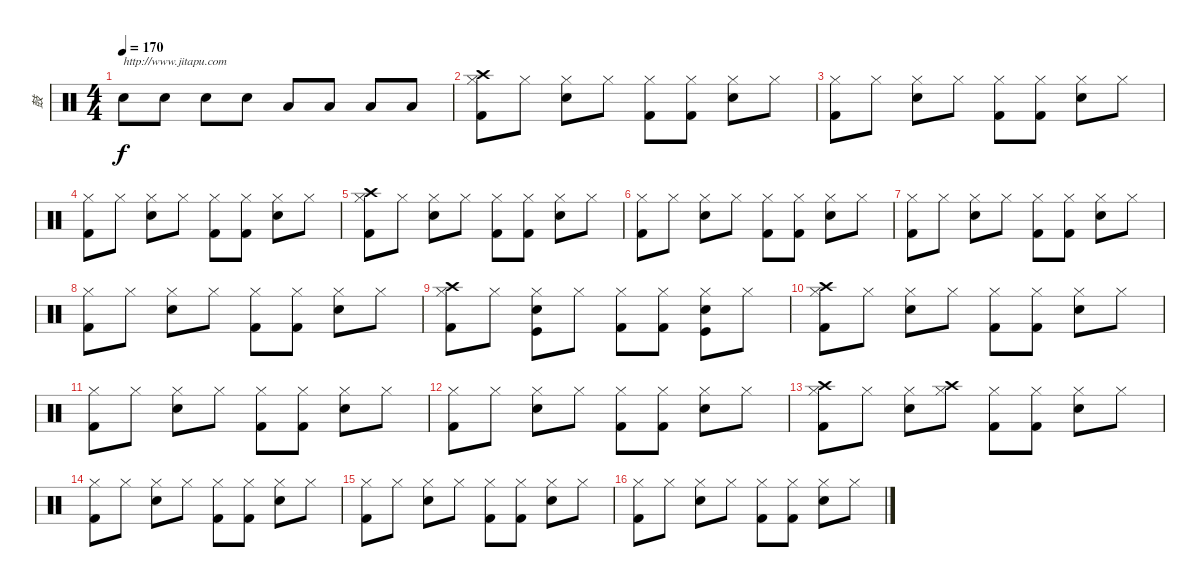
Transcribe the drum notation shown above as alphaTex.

\track ("鼓" "鼓") {instrument percussion}
\staff {score}
\articulation defaults
\ts (4 4)
\tempo 170
\clef neutral
\ks c "Snare (hit) 2".8{txt "http://www.jitapu.com" dy f} "Snare (hit) 2".8 "Snare (hit) 2".8 "Snare (hit) 2".8 "Low Tom (hit)".8 "Low Tom (hit)".8 "Low Floor Tom (hit)".8 "Low Floor Tom (hit)".8
|
("Crash high (hit)" "Hi-Hat (closed)" "Kick (hit) 2").8 "Hi-Hat (closed)".8 ("Hi-Hat (closed)" "Electric Snare (hit)").8 "Hi-Hat (closed)".8 ("Hi-Hat (closed)" "Kick (hit) 2").8 ("Hi-Hat (closed)" "Kick (hit) 2").8 ("Hi-Hat (closed)" "Electric Snare (hit)").8 "Hi-Hat (closed)".8 |
("Hi-Hat (closed)" "Kick (hit) 2").8 "Hi-Hat (closed)".8 ("Hi-Hat (closed)" "Electric Snare (hit)").8 "Hi-Hat (closed)".8 ("Hi-Hat (closed)" "Kick (hit) 2").8 ("Hi-Hat (closed)" "Kick (hit) 2").8 ("Hi-Hat (closed)" "Electric Snare (hit)").8 "Hi-Hat (closed)".8 |
("Hi-Hat (closed)" "Kick (hit) 2").8 "Hi-Hat (closed)".8 ("Hi-Hat (closed)" "Electric Snare (hit)").8 "Hi-Hat (closed)".8 ("Hi-Hat (closed)" "Kick (hit) 2").8 ("Hi-Hat (closed)" "Kick (hit) 2").8 ("Hi-Hat (closed)" "Electric Snare (hit)").8 "Hi-Hat (closed)".8 |
("Crash high (hit)" "Hi-Hat (closed)" "Kick (hit) 2").8 "Hi-Hat (closed)".8 ("Hi-Hat (closed)" "Electric Snare (hit)").8 "Hi-Hat (closed)".8 ("Hi-Hat (closed)" "Kick (hit) 2").8 ("Hi-Hat (closed)" "Kick (hit) 2").8 ("Hi-Hat (closed)" "Electric Snare (hit)").8 "Hi-Hat (closed)".8 |
("Hi-Hat (closed)" "Kick (hit) 2").8 "Hi-Hat (closed)".8 ("Hi-Hat (closed)" "Electric Snare (hit)").8 "Hi-Hat (closed)".8 ("Hi-Hat (closed)" "Kick (hit) 2").8 ("Hi-Hat (closed)" "Kick (hit) 2").8 ("Hi-Hat (closed)" "Electric Snare (hit)").8 "Hi-Hat (closed)".8 |
("Hi-Hat (closed)" "Kick (hit) 2").8 "Hi-Hat (closed)".8 ("Hi-Hat (closed)" "Electric Snare (hit)").8 "Hi-Hat (closed)".8 ("Hi-Hat (closed)" "Kick (hit) 2").8 ("Hi-Hat (closed)" "Kick (hit) 2").8 ("Hi-Hat (closed)" "Electric Snare (hit)").8 "Hi-Hat (closed)".8 |
("Hi-Hat (closed)" "Kick (hit) 2").8 "Hi-Hat (closed)".8 ("Hi-Hat (closed)" "Electric Snare (hit)").8 "Hi-Hat (closed)".8 ("Hi-Hat (closed)" "Kick (hit) 2").8 ("Hi-Hat (closed)" "Kick (hit) 2").8 ("Hi-Hat (closed)" "Electric Snare (hit)").8 "Hi-Hat (closed)".8 |
("Crash high (hit)" "Hi-Hat (closed)" "Kick (hit) 2").8 "Hi-Hat (closed)".8 ("Hi-Hat (closed)" "Electric Snare (hit)" "Kick (hit)").8 "Hi-Hat (closed)".8 ("Hi-Hat (closed)" "Kick (hit) 2").8 ("Hi-Hat (closed)" "Kick (hit) 2").8 ("Hi-Hat (closed)" "Electric Snare (hit)" "Kick (hit)").8 "Hi-Hat (closed)".8 |
("Crash high (hit)" "Hi-Hat (closed)" "Kick (hit) 2").8 "Hi-Hat (closed)".8 ("Hi-Hat (closed)" "Electric Snare (hit)").8 "Hi-Hat (closed)".8 ("Hi-Hat (closed)" "Kick (hit) 2").8 ("Hi-Hat (closed)" "Kick (hit) 2").8 ("Hi-Hat (closed)" "Electric Snare (hit)").8 "Hi-Hat (closed)".8 |
("Hi-Hat (closed)" "Kick (hit) 2").8 "Hi-Hat (closed)".8 ("Hi-Hat (closed)" "Electric Snare (hit)").8 "Hi-Hat (closed)".8 ("Hi-Hat (closed)" "Kick (hit) 2").8 ("Hi-Hat (closed)" "Kick (hit) 2").8 ("Hi-Hat (closed)" "Electric Snare (hit)").8 "Hi-Hat (closed)".8 |
("Hi-Hat (closed)" "Kick (hit) 2").8 "Hi-Hat (closed)".8 ("Hi-Hat (closed)" "Electric Snare (hit)").8 "Hi-Hat (closed)".8 ("Hi-Hat (closed)" "Kick (hit) 2").8 ("Hi-Hat (closed)" "Kick (hit) 2").8 ("Hi-Hat (closed)" "Electric Snare (hit)").8 "Hi-Hat (closed)".8 |
("Crash high (hit)" "Hi-Hat (closed)" "Kick (hit) 2").8 "Hi-Hat (closed)".8 ("Hi-Hat (closed)" "Electric Snare (hit)").8 ("Crash high (hit)" "Hi-Hat (closed)").8 ("Hi-Hat (closed)" "Kick (hit) 2").8 ("Hi-Hat (closed)" "Kick (hit) 2").8 ("Hi-Hat (closed)" "Electric Snare (hit)").8 "Hi-Hat (closed)".8 |
("Hi-Hat (closed)" "Kick (hit) 2").8 "Hi-Hat (closed)".8 ("Hi-Hat (closed)" "Electric Snare (hit)").8 "Hi-Hat (closed)".8 ("Hi-Hat (closed)" "Kick (hit) 2").8 ("Hi-Hat (closed)" "Kick (hit) 2").8 ("Hi-Hat (closed)" "Electric Snare (hit)").8 "Hi-Hat (closed)".8 |
("Hi-Hat (closed)" "Kick (hit) 2").8 "Hi-Hat (closed)".8 ("Hi-Hat (closed)" "Electric Snare (hit)").8 "Hi-Hat (closed)".8 ("Hi-Hat (closed)" "Kick (hit) 2").8 ("Hi-Hat (closed)" "Kick (hit) 2").8 ("Hi-Hat (closed)" "Electric Snare (hit)").8 "Hi-Hat (closed)".8 |
("Hi-Hat (closed)" "Kick (hit) 2").8 "Hi-Hat (closed)".8 ("Hi-Hat (closed)" "Electric Snare (hit)").8 "Hi-Hat (closed)".8 ("Hi-Hat (closed)" "Kick (hit) 2").8 ("Hi-Hat (closed)" "Kick (hit) 2").8 ("Hi-Hat (closed)" "Electric Snare (hit)").8 "Hi-Hat (closed)".8
